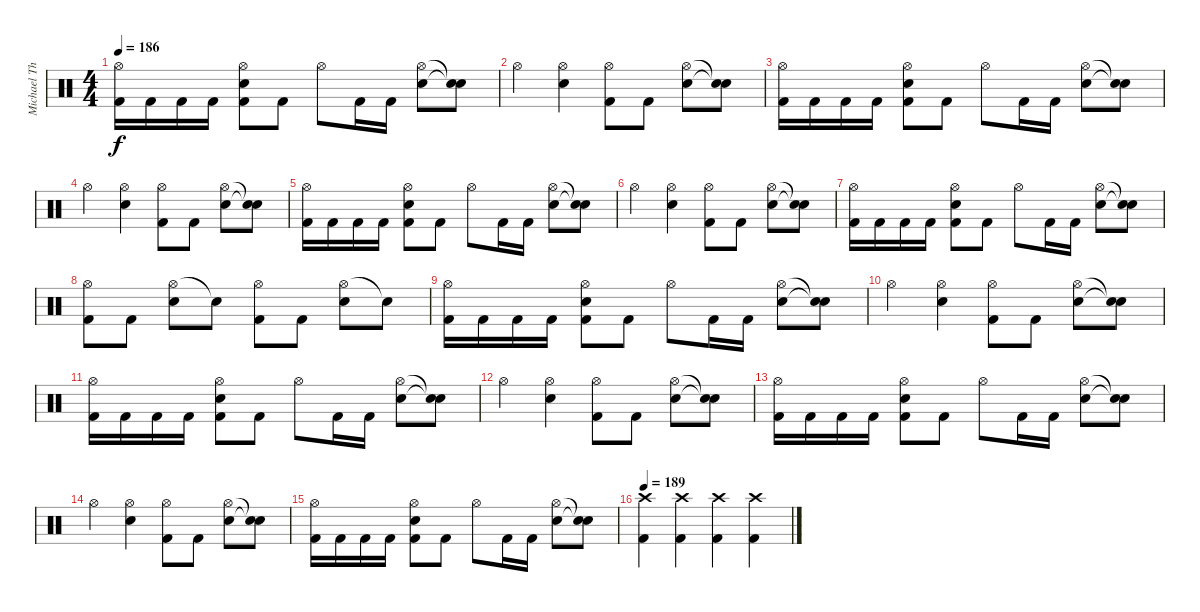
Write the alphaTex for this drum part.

\track ("Michael Thomas" "Michael Th") {instrument percussion}
\staff {score}
\articulation defaults
\ts (4 4)
\tempo 186
\clef neutral
\ks c
("Hi-Hat (open)" "Kick (hit) 2").16{dy f} "Kick (hit) 2".16 "Kick (hit) 2".16 "Kick (hit) 2".16 ("Hi-Hat (open)" "Electric Snare (hit)" "Kick (hit) 2").8 "Kick (hit) 2".8 "Hi-Hat (open)".8 "Kick (hit) 2".16 "Kick (hit) 2".16 ("Hi-Hat (open)" "Electric Snare (hit)").8 ("Snare (hit)"{t} "Snare (hit)"{t}).8 |
"Hi-Hat (open)".4 ("Hi-Hat (open)" "Electric Snare (hit)").4 ("Hi-Hat (open)" "Kick (hit) 2").8 "Kick (hit) 2".8 ("Hi-Hat (open)" "Electric Snare (hit)").8 ("Snare (hit)"{t} "Snare (hit)"{t}).8 |
("Hi-Hat (open)" "Kick (hit) 2").16 "Kick (hit) 2".16 "Kick (hit) 2".16 "Kick (hit) 2".16 ("Hi-Hat (open)" "Electric Snare (hit)" "Kick (hit) 2").8 "Kick (hit) 2".8 "Hi-Hat (open)".8 "Kick (hit) 2".16 "Kick (hit) 2".16 ("Hi-Hat (open)" "Electric Snare (hit)").8 ("Snare (hit)"{t} "Snare (hit)"{t}).8 |
"Hi-Hat (open)".4 ("Hi-Hat (open)" "Electric Snare (hit)").4 ("Hi-Hat (open)" "Kick (hit) 2").8 "Kick (hit) 2".8 ("Hi-Hat (open)" "Electric Snare (hit)").8 ("Snare (hit)"{t} "Snare (hit)"{t}).8 |
("Hi-Hat (open)" "Kick (hit) 2").16 "Kick (hit) 2".16 "Kick (hit) 2".16 "Kick (hit) 2".16 ("Hi-Hat (open)" "Electric Snare (hit)" "Kick (hit) 2").8 "Kick (hit) 2".8 "Hi-Hat (open)".8 "Kick (hit) 2".16 "Kick (hit) 2".16 ("Hi-Hat (open)" "Electric Snare (hit)").8 ("Snare (hit)"{t} "Snare (hit)"{t}).8 |
"Hi-Hat (open)".4 ("Hi-Hat (open)" "Electric Snare (hit)").4 ("Hi-Hat (open)" "Kick (hit) 2").8 "Kick (hit) 2".8 ("Hi-Hat (open)" "Electric Snare (hit)").8 ("Snare (hit)"{t} "Snare (hit)"{t}).8 |
("Hi-Hat (open)" "Kick (hit) 2").16 "Kick (hit) 2".16 "Kick (hit) 2".16 "Kick (hit) 2".16 ("Hi-Hat (open)" "Electric Snare (hit)" "Kick (hit) 2").8 "Kick (hit) 2".8 "Hi-Hat (open)".8 "Kick (hit) 2".16 "Kick (hit) 2".16 ("Hi-Hat (open)" "Electric Snare (hit)").8 ("Snare (hit)"{t} "Snare (hit)"{t}).8 |
("Hi-Hat (open)" "Kick (hit) 2").8 "Kick (hit) 2".8 ("Hi-Hat (open)" "Electric Snare (hit)").8 "Snare (hit)"{t}.8 ("Hi-Hat (open)" "Kick (hit) 2").8 "Kick (hit) 2".8 ("Hi-Hat (open)" "Electric Snare (hit)").8 "Snare (hit)"{t}.8 |
("Hi-Hat (open)" "Kick (hit) 2").16 "Kick (hit) 2".16 "Kick (hit) 2".16 "Kick (hit) 2".16 ("Hi-Hat (open)" "Electric Snare (hit)" "Kick (hit) 2").8 "Kick (hit) 2".8 "Hi-Hat (open)".8 "Kick (hit) 2".16 "Kick (hit) 2".16 ("Hi-Hat (open)" "Electric Snare (hit)").8 ("Snare (hit)"{t} "Snare (hit)"{t}).8 |
"Hi-Hat (open)".4 ("Hi-Hat (open)" "Electric Snare (hit)").4 ("Hi-Hat (open)" "Kick (hit) 2").8 "Kick (hit) 2".8 ("Hi-Hat (open)" "Electric Snare (hit)").8 ("Snare (hit)"{t} "Snare (hit)"{t}).8 |
("Hi-Hat (open)" "Kick (hit) 2").16 "Kick (hit) 2".16 "Kick (hit) 2".16 "Kick (hit) 2".16 ("Hi-Hat (open)" "Electric Snare (hit)" "Kick (hit) 2").8 "Kick (hit) 2".8 "Hi-Hat (open)".8 "Kick (hit) 2".16 "Kick (hit) 2".16 ("Hi-Hat (open)" "Electric Snare (hit)").8 ("Snare (hit)"{t} "Snare (hit)"{t}).8 |
"Hi-Hat (open)".4 ("Hi-Hat (open)" "Electric Snare (hit)").4 ("Hi-Hat (open)" "Kick (hit) 2").8 "Kick (hit) 2".8 ("Hi-Hat (open)" "Electric Snare (hit)").8 ("Snare (hit)"{t} "Snare (hit)"{t}).8 |
("Hi-Hat (open)" "Kick (hit) 2").16 "Kick (hit) 2".16 "Kick (hit) 2".16 "Kick (hit) 2".16 ("Hi-Hat (open)" "Electric Snare (hit)" "Kick (hit) 2").8 "Kick (hit) 2".8 "Hi-Hat (open)".8 "Kick (hit) 2".16 "Kick (hit) 2".16 ("Hi-Hat (open)" "Electric Snare (hit)").8 ("Snare (hit)"{t} "Snare (hit)"{t}).8 |
"Hi-Hat (open)".4 ("Hi-Hat (open)" "Electric Snare (hit)").4 ("Hi-Hat (open)" "Kick (hit) 2").8 "Kick (hit) 2".8 ("Hi-Hat (open)" "Electric Snare (hit)").8 ("Snare (hit)"{t} "Snare (hit)"{t}).8 |
("Hi-Hat (open)" "Kick (hit) 2").16 "Kick (hit) 2".16 "Kick (hit) 2".16 "Kick (hit) 2".16 ("Hi-Hat (open)" "Electric Snare (hit)" "Kick (hit) 2").8 "Kick (hit) 2".8 "Hi-Hat (open)".8 "Kick (hit) 2".16 "Kick (hit) 2".16 ("Hi-Hat (open)" "Electric Snare (hit)").8 ("Snare (hit)"{t} "Snare (hit)"{t}).8 |
\tempo 189
("Crash high (hit)" "Kick (hit) 2").4 ("Crash high (hit)" "Kick (hit) 2").4 ("Crash high (hit)" "Kick (hit) 2").4 ("Crash high (hit)" "Kick (hit) 2").4
